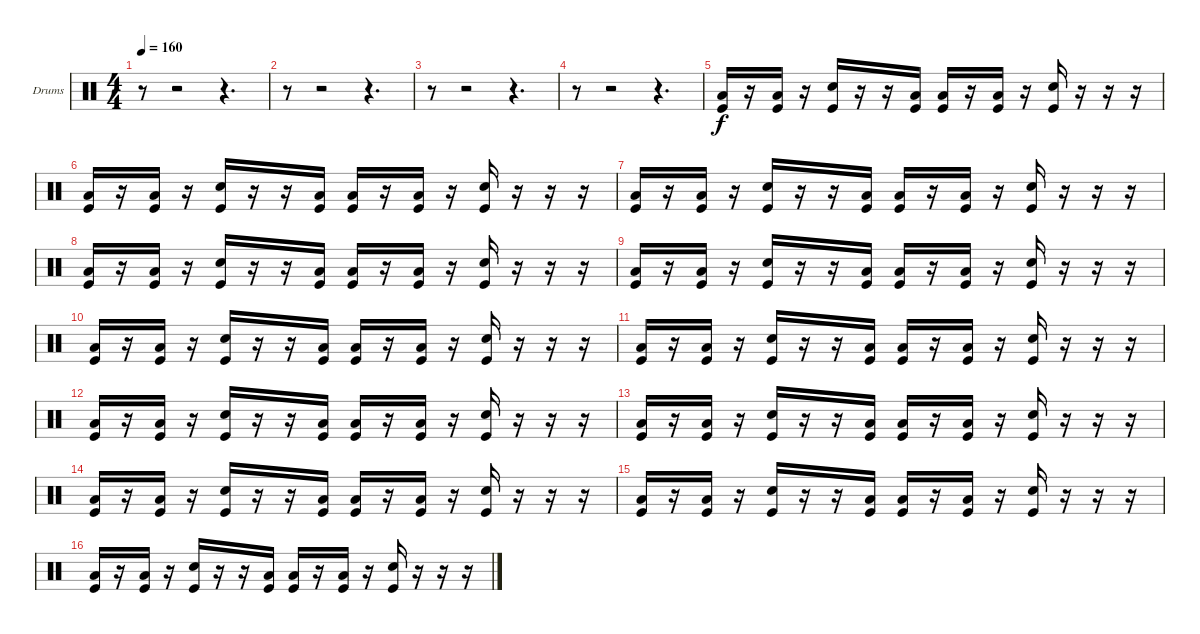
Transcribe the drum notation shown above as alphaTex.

\defaultSystemsLayout 4
\bracketExtendMode groupsimilarinstruments
\firstSystemTrackNameOrientation horizontal
\otherSystemsTrackNameOrientation horizontal
\track ("Drumkit" "Drums") {solo instrument percussion}
\staff {score}
\articulation defaults
\ts (4 4)
\tempo 160
\clef neutral
\scale
0.333333
\ks c
r.8{dy f} r.2 r.4{d} |
\scale
0.333333 r.8 r.2 r.4{d} |
\scale
0.333333 r.8 r.2 r.4{d} |
\scale
0.333333 r.8 r.2 r.4{d} |
\scale
0.333333 ("Low Tom (hit)" "Kick (hit)").16 r.16 ("Low Tom (hit)" "Kick (hit)").16 r.16 ("Snare (hit) 2" "Kick (hit)").16 r.16 r.16 ("Low Tom (hit)" "Kick (hit)").16 ("Low Tom (hit)" "Kick (hit)").16 r.16 ("Low Tom (hit)" "Kick (hit)").16 r.16 ("Snare (hit) 2" "Kick (hit)").16 r.16 r.16 r.16 |
\scale
0.333333 ("Low Tom (hit)" "Kick (hit)").16 r.16 ("Low Tom (hit)" "Kick (hit)").16 r.16 ("Snare (hit) 2" "Kick (hit)").16 r.16 r.16 ("Low Tom (hit)" "Kick (hit)").16 ("Low Tom (hit)" "Kick (hit)").16 r.16 ("Low Tom (hit)" "Kick (hit)").16 r.16 ("Snare (hit) 2" "Kick (hit)").16 r.16 r.16 r.16 |
\scale
0.333333 ("Low Tom (hit)" "Kick (hit)").16 r.16 ("Low Tom (hit)" "Kick (hit)").16 r.16 ("Snare (hit) 2" "Kick (hit)").16 r.16 r.16 ("Low Tom (hit)" "Kick (hit)").16 ("Low Tom (hit)" "Kick (hit)").16 r.16 ("Low Tom (hit)" "Kick (hit)").16 r.16 ("Snare (hit) 2" "Kick (hit)").16 r.16 r.16 r.16 |
\scale
0.333333 ("Low Tom (hit)" "Kick (hit)").16 r.16 ("Low Tom (hit)" "Kick (hit)").16 r.16 ("Snare (hit) 2" "Kick (hit)").16 r.16 r.16 ("Low Tom (hit)" "Kick (hit)").16 ("Low Tom (hit)" "Kick (hit)").16 r.16 ("Low Tom (hit)" "Kick (hit)").16 r.16 ("Snare (hit) 2" "Kick (hit)").16 r.16 r.16 r.16 |
\scale
0.333333 ("Low Tom (hit)" "Kick (hit)").16 r.16 ("Low Tom (hit)" "Kick (hit)").16 r.16 ("Snare (hit) 2" "Kick (hit)").16 r.16 r.16 ("Low Tom (hit)" "Kick (hit)").16 ("Low Tom (hit)" "Kick (hit)").16 r.16 ("Low Tom (hit)" "Kick (hit)").16 r.16 ("Snare (hit) 2" "Kick (hit)").16 r.16 r.16 r.16 |
\scale
0.333333 ("Low Tom (hit)" "Kick (hit)").16 r.16 ("Low Tom (hit)" "Kick (hit)").16 r.16 ("Snare (hit) 2" "Kick (hit)").16 r.16 r.16 ("Low Tom (hit)" "Kick (hit)").16 ("Low Tom (hit)" "Kick (hit)").16 r.16 ("Low Tom (hit)" "Kick (hit)").16 r.16 ("Snare (hit) 2" "Kick (hit)").16 r.16 r.16 r.16 |
("Low Tom (hit)" "Kick (hit)").16 r.16 ("Low Tom (hit)" "Kick (hit)").16 r.16 ("Snare (hit) 2" "Kick (hit)").16 r.16 r.16 ("Low Tom (hit)" "Kick (hit)").16 ("Low Tom (hit)" "Kick (hit)").16 r.16 ("Low Tom (hit)" "Kick (hit)").16 r.16 ("Snare (hit) 2" "Kick (hit)").16 r.16 r.16 r.16 |
("Low Tom (hit)" "Kick (hit)").16 r.16 ("Low Tom (hit)" "Kick (hit)").16 r.16 ("Snare (hit) 2" "Kick (hit)").16 r.16 r.16 ("Low Tom (hit)" "Kick (hit)").16 ("Low Tom (hit)" "Kick (hit)").16 r.16 ("Low Tom (hit)" "Kick (hit)").16 r.16 ("Snare (hit) 2" "Kick (hit)").16 r.16 r.16 r.16 |
("Low Tom (hit)" "Kick (hit)").16 r.16 ("Low Tom (hit)" "Kick (hit)").16 r.16 ("Snare (hit) 2" "Kick (hit)").16 r.16 r.16 ("Low Tom (hit)" "Kick (hit)").16 ("Low Tom (hit)" "Kick (hit)").16 r.16 ("Low Tom (hit)" "Kick (hit)").16 r.16 ("Snare (hit) 2" "Kick (hit)").16 r.16 r.16 r.16 |
("Low Tom (hit)" "Kick (hit)").16 r.16 ("Low Tom (hit)" "Kick (hit)").16 r.16 ("Snare (hit) 2" "Kick (hit)").16 r.16 r.16 ("Low Tom (hit)" "Kick (hit)").16 ("Low Tom (hit)" "Kick (hit)").16 r.16 ("Low Tom (hit)" "Kick (hit)").16 r.16 ("Snare (hit) 2" "Kick (hit)").16 r.16 r.16 r.16 |
\scale
0.333333 ("Low Tom (hit)" "Kick (hit)").16 r.16 ("Low Tom (hit)" "Kick (hit)").16 r.16 ("Snare (hit) 2" "Kick (hit)").16 r.16 r.16 ("Low Tom (hit)" "Kick (hit)").16 ("Low Tom (hit)" "Kick (hit)").16 r.16 ("Low Tom (hit)" "Kick (hit)").16 r.16 ("Snare (hit) 2" "Kick (hit)").16 r.16 r.16 r.16 |
\scale
0.333333 ("Low Tom (hit)" "Kick (hit)").16 r.16 ("Low Tom (hit)" "Kick (hit)").16 r.16 ("Snare (hit) 2" "Kick (hit)").16 r.16 r.16 ("Low Tom (hit)" "Kick (hit)").16 ("Low Tom (hit)" "Kick (hit)").16 r.16 ("Low Tom (hit)" "Kick (hit)").16 r.16 ("Snare (hit) 2" "Kick (hit)").16 r.16 r.16 r.16
